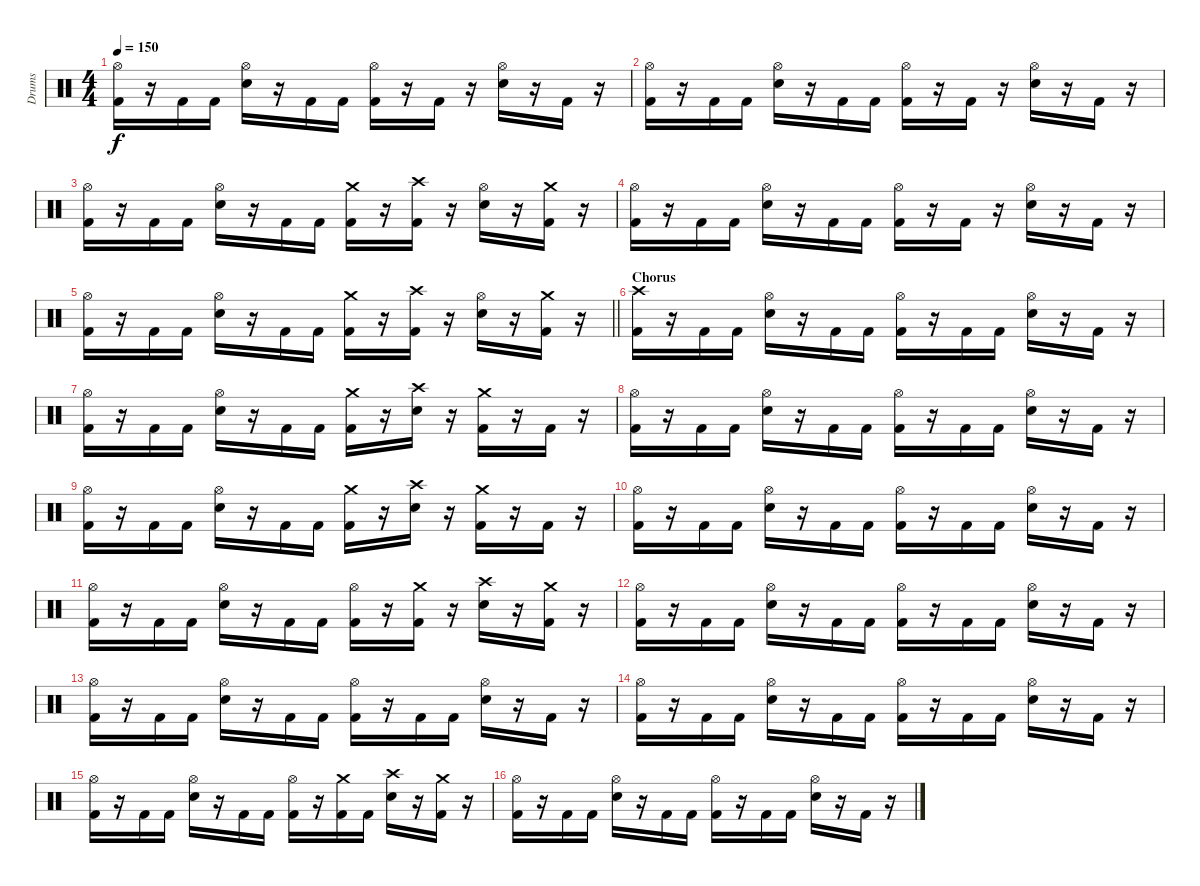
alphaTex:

\track ("Drums" "Drums") {instrument percussion}
\staff {score}
\articulation defaults
\ts (4 4)
\tempo 150
\clef neutral
\ks c
("Hi-Hat (open)" "Kick (hit) 2").16{dy f} r.16 "Kick (hit) 2".16 "Kick (hit) 2".16 ("Hi-Hat (open)" "Snare (hit) 2").16 r.16 "Kick (hit) 2".16 "Kick (hit) 2".16 ("Hi-Hat (open)" "Kick (hit) 2").16 r.16 "Kick (hit) 2".16 r.16 ("Hi-Hat (open)" "Snare (hit) 2").16 r.16 "Kick (hit) 2".16 r.16 |
("Hi-Hat (open)" "Kick (hit) 2").16 r.16 "Kick (hit) 2".16 "Kick (hit) 2".16 ("Hi-Hat (open)" "Snare (hit) 2").16 r.16 "Kick (hit) 2".16 "Kick (hit) 2".16 ("Hi-Hat (open)" "Kick (hit) 2").16 r.16 "Kick (hit) 2".16 r.16 ("Hi-Hat (open)" "Snare (hit) 2").16 r.16 "Kick (hit) 2".16 r.16 |
("Hi-Hat (open)" "Kick (hit) 2").16 r.16 "Kick (hit) 2".16 "Kick (hit) 2".16 ("Hi-Hat (open)" "Snare (hit) 2").16 r.16 "Kick (hit) 2".16 "Kick (hit) 2".16 ("Crash medium (hit)" "Kick (hit) 2").16 r.16 ("Crash high (hit)" "Kick (hit) 2").16 r.16 ("Hi-Hat (open)" "Snare (hit) 2").16 r.16 ("Crash medium (hit)" "Kick (hit) 2").16 r.16 |
("Hi-Hat (open)" "Kick (hit) 2").16 r.16 "Kick (hit) 2".16 "Kick (hit) 2".16 ("Hi-Hat (open)" "Snare (hit) 2").16 r.16 "Kick (hit) 2".16 "Kick (hit) 2".16 ("Hi-Hat (open)" "Kick (hit) 2").16 r.16 "Kick (hit) 2".16 r.16 ("Hi-Hat (open)" "Snare (hit) 2").16 r.16 "Kick (hit) 2".16 r.16 |
\barLineRight lightlight
("Hi-Hat (open)" "Kick (hit) 2").16 r.16 "Kick (hit) 2".16 "Kick (hit) 2".16 ("Hi-Hat (open)" "Snare (hit) 2").16 r.16 "Kick (hit) 2".16 "Kick (hit) 2".16 ("Crash medium (hit)" "Kick (hit) 2").16 r.16 ("Crash high (hit)" "Kick (hit) 2").16 r.16 ("Hi-Hat (open)" "Snare (hit) 2").16 r.16 ("Crash medium (hit)" "Kick (hit) 2").16 r.16 |
\section ("" "Chorus")
("Crash high (hit)" "Kick (hit) 2").16 r.16 "Kick (hit) 2".16 "Kick (hit) 2".16 ("Hi-Hat (open)" "Snare (hit) 2").16 r.16 "Kick (hit) 2".16 "Kick (hit) 2".16 ("Hi-Hat (open)" "Kick (hit) 2").16 r.16 "Kick (hit) 2".16 "Kick (hit) 2".16 ("Hi-Hat (open)" "Snare (hit) 2").16 r.16 "Kick (hit) 2".16 r.16 |
("Hi-Hat (open)" "Kick (hit) 2").16 r.16 "Kick (hit) 2".16 "Kick (hit) 2".16 ("Hi-Hat (open)" "Snare (hit) 2").16 r.16 "Kick (hit) 2".16 "Kick (hit) 2".16 ("Crash medium (hit)" "Kick (hit) 2").16 r.16 ("Crash high (hit)" "Snare (hit) 2").16 r.16 ("Crash medium (hit)" "Kick (hit) 2").16 r.16 "Kick (hit) 2".16 r.16 |
("Hi-Hat (open)" "Kick (hit) 2").16 r.16 "Kick (hit) 2".16 "Kick (hit) 2".16 ("Hi-Hat (open)" "Snare (hit) 2").16 r.16 "Kick (hit) 2".16 "Kick (hit) 2".16 ("Hi-Hat (open)" "Kick (hit) 2").16 r.16 "Kick (hit) 2".16 "Kick (hit) 2".16 ("Hi-Hat (open)" "Snare (hit) 2").16 r.16 "Kick (hit) 2".16 r.16 |
("Hi-Hat (open)" "Kick (hit) 2").16 r.16 "Kick (hit) 2".16 "Kick (hit) 2".16 ("Hi-Hat (open)" "Snare (hit) 2").16 r.16 "Kick (hit) 2".16 "Kick (hit) 2".16 ("Crash medium (hit)" "Kick (hit) 2").16 r.16 ("Crash high (hit)" "Snare (hit) 2").16 r.16 ("Crash medium (hit)" "Kick (hit) 2").16 r.16 "Kick (hit) 2".16 r.16 |
("Hi-Hat (open)" "Kick (hit) 2").16 r.16 "Kick (hit) 2".16 "Kick (hit) 2".16 ("Hi-Hat (open)" "Snare (hit) 2").16 r.16 "Kick (hit) 2".16 "Kick (hit) 2".16 ("Hi-Hat (open)" "Kick (hit) 2").16 r.16 "Kick (hit) 2".16 "Kick (hit) 2".16 ("Hi-Hat (open)" "Snare (hit) 2").16 r.16 "Kick (hit) 2".16 r.16 |
("Hi-Hat (open)" "Kick (hit) 2").16 r.16 "Kick (hit) 2".16 "Kick (hit) 2".16 ("Hi-Hat (open)" "Snare (hit) 2").16 r.16 "Kick (hit) 2".16 "Kick (hit) 2".16 ("Hi-Hat (open)" "Kick (hit) 2").16 r.16 ("Crash medium (hit)" "Kick (hit) 2").16 r.16 ("Crash high (hit)" "Snare (hit) 2").16 r.16 ("Crash medium (hit)" "Kick (hit) 2").16 r.16 |
("Hi-Hat (open)" "Kick (hit) 2").16 r.16 "Kick (hit) 2".16 "Kick (hit) 2".16 ("Hi-Hat (open)" "Snare (hit) 2").16 r.16 "Kick (hit) 2".16 "Kick (hit) 2".16 ("Hi-Hat (open)" "Kick (hit) 2").16 r.16 "Kick (hit) 2".16 "Kick (hit) 2".16 ("Hi-Hat (open)" "Snare (hit) 2").16 r.16 "Kick (hit) 2".16 r.16 |
("Hi-Hat (open)" "Kick (hit) 2").16 r.16 "Kick (hit) 2".16 "Kick (hit) 2".16 ("Hi-Hat (open)" "Snare (hit) 2").16 r.16 "Kick (hit) 2".16 "Kick (hit) 2".16 ("Hi-Hat (open)" "Kick (hit) 2").16 r.16 "Kick (hit) 2".16 "Kick (hit) 2".16 ("Hi-Hat (open)" "Snare (hit) 2").16 r.16 "Kick (hit) 2".16 r.16 |
("Hi-Hat (open)" "Kick (hit) 2").16 r.16 "Kick (hit) 2".16 "Kick (hit) 2".16 ("Hi-Hat (open)" "Snare (hit) 2").16 r.16 "Kick (hit) 2".16 "Kick (hit) 2".16 ("Hi-Hat (open)" "Kick (hit) 2").16 r.16 "Kick (hit) 2".16 "Kick (hit) 2".16 ("Hi-Hat (open)" "Snare (hit) 2").16 r.16 "Kick (hit) 2".16 r.16 |
("Hi-Hat (open)" "Kick (hit) 2").16 r.16 "Kick (hit) 2".16 "Kick (hit) 2".16 ("Hi-Hat (open)" "Snare (hit) 2").16 r.16 "Kick (hit) 2".16 "Kick (hit) 2".16 ("Hi-Hat (open)" "Kick (hit) 2").16 r.16 ("Crash medium (hit)" "Kick (hit) 2").16 "Kick (hit) 2".16 ("Crash high (hit)" "Snare (hit) 2").16 r.16 ("Crash medium (hit)" "Kick (hit) 2").16 r.16 |
("Hi-Hat (open)" "Kick (hit) 2").16 r.16 "Kick (hit) 2".16 "Kick (hit) 2".16 ("Hi-Hat (open)" "Snare (hit) 2").16 r.16 "Kick (hit) 2".16 "Kick (hit) 2".16 ("Hi-Hat (open)" "Kick (hit) 2").16 r.16 "Kick (hit) 2".16 "Kick (hit) 2".16 ("Hi-Hat (open)" "Snare (hit) 2").16 r.16 "Kick (hit) 2".16 r.16
